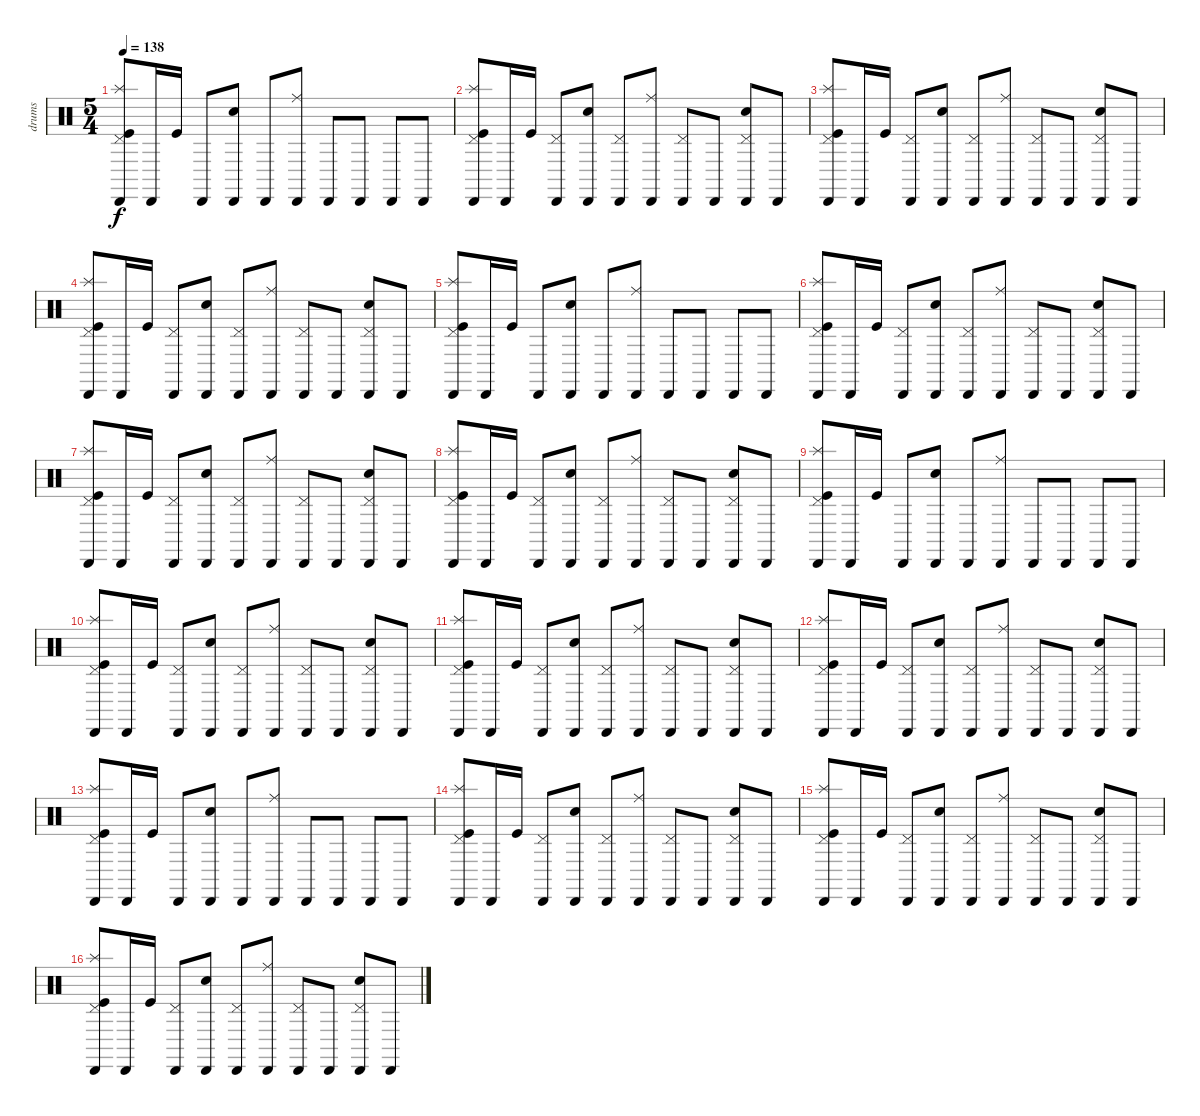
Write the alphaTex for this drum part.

\track ("drums" "drums") {instrument percussion}
\staff {score}
\articulation defaults
\ts (5 4)
\tempo 138
\clef neutral
\ks c
("Pedal Hi-Hat (hit)" "Splash (hit)" "Kick (hit)" "Cabasa (hit)").8{dy f} "Cabasa (hit)".16 "Kick (hit)".16 "Cabasa (hit)".8 ("Snare (hit) 2" "Cabasa (hit)").8 "Cabasa (hit)".8 ("Ride (middle)" "Cabasa (hit)").8 "Cabasa (hit)".8 "Cabasa (hit)".8 "Cabasa (hit)".8 "Cabasa (hit)".8 |
("Kick (hit)" "Pedal Hi-Hat (hit)" "Splash (hit)" "Cabasa (hit)").8 "Cabasa (hit)".16 "Kick (hit)".16 ("Pedal Hi-Hat (hit)" "Cabasa (hit)").8 ("Snare (hit) 2" "Cabasa (hit)").8 ("Pedal Hi-Hat (hit)" "Cabasa (hit)").8 ("Ride (middle)" "Cabasa (hit)").8 ("Pedal Hi-Hat (hit)" "Cabasa (hit)").8 "Cabasa (hit)".8 ("Snare (hit) 2" "Pedal Hi-Hat (hit)" "Cabasa (hit)").8 "Cabasa (hit)".8 |
("Pedal Hi-Hat (hit)" "Splash (hit)" "Kick (hit)" "Cabasa (hit)").8 "Cabasa (hit)".16 "Kick (hit)".16 ("Pedal Hi-Hat (hit)" "Cabasa (hit)").8 ("Snare (hit) 2" "Cabasa (hit)").8 ("Pedal Hi-Hat (hit)" "Cabasa (hit)").8 ("Ride (middle)" "Cabasa (hit)").8 ("Pedal Hi-Hat (hit)" "Cabasa (hit)").8 "Cabasa (hit)".8 ("Snare (hit) 2" "Pedal Hi-Hat (hit)" "Cabasa (hit)").8 "Cabasa (hit)".8 |
("Kick (hit)" "Pedal Hi-Hat (hit)" "Splash (hit)" "Cabasa (hit)").8 "Cabasa (hit)".16 "Kick (hit)".16 ("Pedal Hi-Hat (hit)" "Cabasa (hit)").8 ("Snare (hit) 2" "Cabasa (hit)").8 ("Pedal Hi-Hat (hit)" "Cabasa (hit)").8 ("Ride (middle)" "Cabasa (hit)").8 ("Pedal Hi-Hat (hit)" "Cabasa (hit)").8 "Cabasa (hit)".8 ("Snare (hit) 2" "Pedal Hi-Hat (hit)" "Cabasa (hit)").8 "Cabasa (hit)".8 |
("Pedal Hi-Hat (hit)" "Splash (hit)" "Kick (hit)" "Cabasa (hit)").8 "Cabasa (hit)".16 "Kick (hit)".16 "Cabasa (hit)".8 ("Snare (hit) 2" "Cabasa (hit)").8 "Cabasa (hit)".8 ("Ride (middle)" "Cabasa (hit)").8 "Cabasa (hit)".8 "Cabasa (hit)".8 "Cabasa (hit)".8 "Cabasa (hit)".8 |
("Kick (hit)" "Pedal Hi-Hat (hit)" "Splash (hit)" "Cabasa (hit)").8 "Cabasa (hit)".16 "Kick (hit)".16 ("Pedal Hi-Hat (hit)" "Cabasa (hit)").8 ("Snare (hit) 2" "Cabasa (hit)").8 ("Pedal Hi-Hat (hit)" "Cabasa (hit)").8 ("Ride (middle)" "Cabasa (hit)").8 ("Pedal Hi-Hat (hit)" "Cabasa (hit)").8 "Cabasa (hit)".8 ("Snare (hit) 2" "Pedal Hi-Hat (hit)" "Cabasa (hit)").8 "Cabasa (hit)".8 |
("Pedal Hi-Hat (hit)" "Splash (hit)" "Kick (hit)" "Cabasa (hit)").8 "Cabasa (hit)".16 "Kick (hit)".16 ("Pedal Hi-Hat (hit)" "Cabasa (hit)").8 ("Snare (hit) 2" "Cabasa (hit)").8 ("Pedal Hi-Hat (hit)" "Cabasa (hit)").8 ("Ride (middle)" "Cabasa (hit)").8 ("Pedal Hi-Hat (hit)" "Cabasa (hit)").8 "Cabasa (hit)".8 ("Snare (hit) 2" "Pedal Hi-Hat (hit)" "Cabasa (hit)").8 "Cabasa (hit)".8 |
("Kick (hit)" "Pedal Hi-Hat (hit)" "Splash (hit)" "Cabasa (hit)").8 "Cabasa (hit)".16 "Kick (hit)".16 ("Pedal Hi-Hat (hit)" "Cabasa (hit)").8 ("Snare (hit) 2" "Cabasa (hit)").8 ("Pedal Hi-Hat (hit)" "Cabasa (hit)").8 ("Ride (middle)" "Cabasa (hit)").8 ("Pedal Hi-Hat (hit)" "Cabasa (hit)").8 "Cabasa (hit)".8 ("Snare (hit) 2" "Pedal Hi-Hat (hit)" "Cabasa (hit)").8 "Cabasa (hit)".8 |
("Pedal Hi-Hat (hit)" "Splash (hit)" "Kick (hit)" "Cabasa (hit)").8 "Cabasa (hit)".16 "Kick (hit)".16 "Cabasa (hit)".8 ("Snare (hit) 2" "Cabasa (hit)").8 "Cabasa (hit)".8 ("Ride (middle)" "Cabasa (hit)").8 "Cabasa (hit)".8 "Cabasa (hit)".8 "Cabasa (hit)".8 "Cabasa (hit)".8 |
("Kick (hit)" "Pedal Hi-Hat (hit)" "Splash (hit)" "Cabasa (hit)").8 "Cabasa (hit)".16 "Kick (hit)".16 ("Pedal Hi-Hat (hit)" "Cabasa (hit)").8 ("Snare (hit) 2" "Cabasa (hit)").8 ("Pedal Hi-Hat (hit)" "Cabasa (hit)").8 ("Ride (middle)" "Cabasa (hit)").8 ("Pedal Hi-Hat (hit)" "Cabasa (hit)").8 "Cabasa (hit)".8 ("Snare (hit) 2" "Pedal Hi-Hat (hit)" "Cabasa (hit)").8 "Cabasa (hit)".8 |
("Pedal Hi-Hat (hit)" "Splash (hit)" "Kick (hit)" "Cabasa (hit)").8 "Cabasa (hit)".16 "Kick (hit)".16 ("Pedal Hi-Hat (hit)" "Cabasa (hit)").8 ("Snare (hit) 2" "Cabasa (hit)").8 ("Pedal Hi-Hat (hit)" "Cabasa (hit)").8 ("Ride (middle)" "Cabasa (hit)").8 ("Pedal Hi-Hat (hit)" "Cabasa (hit)").8 "Cabasa (hit)".8 ("Snare (hit) 2" "Pedal Hi-Hat (hit)" "Cabasa (hit)").8 "Cabasa (hit)".8 |
("Kick (hit)" "Pedal Hi-Hat (hit)" "Splash (hit)" "Cabasa (hit)").8 "Cabasa (hit)".16 "Kick (hit)".16 ("Pedal Hi-Hat (hit)" "Cabasa (hit)").8 ("Snare (hit) 2" "Cabasa (hit)").8 ("Pedal Hi-Hat (hit)" "Cabasa (hit)").8 ("Ride (middle)" "Cabasa (hit)").8 ("Pedal Hi-Hat (hit)" "Cabasa (hit)").8 "Cabasa (hit)".8 ("Snare (hit) 2" "Pedal Hi-Hat (hit)" "Cabasa (hit)").8 "Cabasa (hit)".8 |
("Pedal Hi-Hat (hit)" "Splash (hit)" "Kick (hit)" "Cabasa (hit)").8 "Cabasa (hit)".16 "Kick (hit)".16 "Cabasa (hit)".8 ("Snare (hit) 2" "Cabasa (hit)").8 "Cabasa (hit)".8 ("Ride (middle)" "Cabasa (hit)").8 "Cabasa (hit)".8 "Cabasa (hit)".8 "Cabasa (hit)".8 "Cabasa (hit)".8 |
("Kick (hit)" "Pedal Hi-Hat (hit)" "Splash (hit)" "Cabasa (hit)").8 "Cabasa (hit)".16 "Kick (hit)".16 ("Pedal Hi-Hat (hit)" "Cabasa (hit)").8 ("Snare (hit) 2" "Cabasa (hit)").8 ("Pedal Hi-Hat (hit)" "Cabasa (hit)").8 ("Ride (middle)" "Cabasa (hit)").8 ("Pedal Hi-Hat (hit)" "Cabasa (hit)").8 "Cabasa (hit)".8 ("Snare (hit) 2" "Pedal Hi-Hat (hit)" "Cabasa (hit)").8 "Cabasa (hit)".8 |
("Pedal Hi-Hat (hit)" "Splash (hit)" "Kick (hit)" "Cabasa (hit)").8 "Cabasa (hit)".16 "Kick (hit)".16 ("Pedal Hi-Hat (hit)" "Cabasa (hit)").8 ("Snare (hit) 2" "Cabasa (hit)").8 ("Pedal Hi-Hat (hit)" "Cabasa (hit)").8 ("Ride (middle)" "Cabasa (hit)").8 ("Pedal Hi-Hat (hit)" "Cabasa (hit)").8 "Cabasa (hit)".8 ("Snare (hit) 2" "Pedal Hi-Hat (hit)" "Cabasa (hit)").8 "Cabasa (hit)".8 |
("Kick (hit)" "Pedal Hi-Hat (hit)" "Splash (hit)" "Cabasa (hit)").8 "Cabasa (hit)".16 "Kick (hit)".16 ("Pedal Hi-Hat (hit)" "Cabasa (hit)").8 ("Snare (hit) 2" "Cabasa (hit)").8 ("Pedal Hi-Hat (hit)" "Cabasa (hit)").8 ("Ride (middle)" "Cabasa (hit)").8 ("Pedal Hi-Hat (hit)" "Cabasa (hit)").8 "Cabasa (hit)".8 ("Snare (hit) 2" "Pedal Hi-Hat (hit)" "Cabasa (hit)").8 "Cabasa (hit)".8
